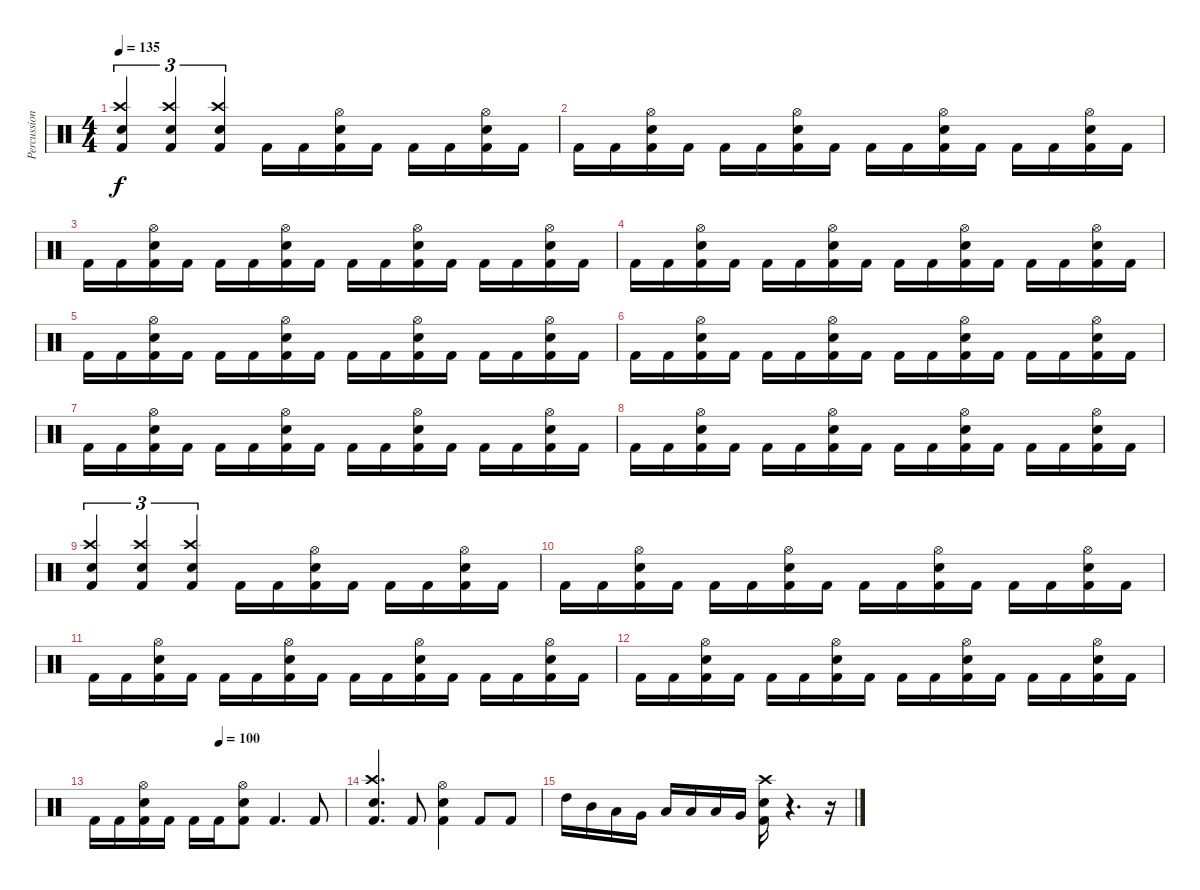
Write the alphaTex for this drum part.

\track ("Percussions" "Percussion") {instrument percussion}
\staff {score}
\articulation defaults
\ts (4 4)
\tempo 135
\clef neutral
\ks c
("Snare (hit) 2" "Crash high (hit)" "Kick (hit) 2").4{tu (3 2) dy f} ("Snare (hit) 2" "Crash high (hit)" "Kick (hit) 2").4{tu (3 2)} ("Snare (hit) 2" "Crash high (hit)" "Kick (hit) 2").4{tu (3 2)} "Kick (hit) 2".16 "Kick (hit) 2".16 ("Snare (hit) 2" "Hi-Hat (open)" "Kick (hit) 2").16 "Kick (hit) 2".16 "Kick (hit) 2".16 "Kick (hit) 2".16 ("Snare (hit) 2" "Hi-Hat (open)" "Kick (hit) 2").16 "Kick (hit) 2".16 |
"Kick (hit) 2".16 "Kick (hit) 2".16 ("Hi-Hat (open)" "Snare (hit) 2" "Kick (hit) 2").16 "Kick (hit) 2".16 "Kick (hit) 2".16 "Kick (hit) 2".16 ("Hi-Hat (open)" "Snare (hit) 2" "Kick (hit) 2").16 "Kick (hit) 2".16 "Kick (hit) 2".16 "Kick (hit) 2".16 ("Hi-Hat (open)" "Snare (hit) 2" "Kick (hit) 2").16 "Kick (hit) 2".16 "Kick (hit) 2".16 "Kick (hit) 2".16 ("Hi-Hat (open)" "Snare (hit) 2" "Kick (hit) 2").16 "Kick (hit) 2".16 |
"Kick (hit) 2".16 "Kick (hit) 2".16 ("Hi-Hat (open)" "Snare (hit) 2" "Kick (hit) 2").16 "Kick (hit) 2".16 "Kick (hit) 2".16 "Kick (hit) 2".16 ("Hi-Hat (open)" "Snare (hit) 2" "Kick (hit) 2").16 "Kick (hit) 2".16 "Kick (hit) 2".16 "Kick (hit) 2".16 ("Hi-Hat (open)" "Snare (hit) 2" "Kick (hit) 2").16 "Kick (hit) 2".16 "Kick (hit) 2".16 "Kick (hit) 2".16 ("Hi-Hat (open)" "Snare (hit) 2" "Kick (hit) 2").16 "Kick (hit) 2".16 |
"Kick (hit) 2".16 "Kick (hit) 2".16 ("Hi-Hat (open)" "Snare (hit) 2" "Kick (hit) 2").16 "Kick (hit) 2".16 "Kick (hit) 2".16 "Kick (hit) 2".16 ("Hi-Hat (open)" "Snare (hit) 2" "Kick (hit) 2").16 "Kick (hit) 2".16 "Kick (hit) 2".16 "Kick (hit) 2".16 ("Hi-Hat (open)" "Snare (hit) 2" "Kick (hit) 2").16 "Kick (hit) 2".16 "Kick (hit) 2".16 "Kick (hit) 2".16 ("Hi-Hat (open)" "Snare (hit) 2" "Kick (hit) 2").16 "Kick (hit) 2".16 |
"Kick (hit) 2".16 "Kick (hit) 2".16 ("Hi-Hat (open)" "Snare (hit) 2" "Kick (hit) 2").16 "Kick (hit) 2".16 "Kick (hit) 2".16 "Kick (hit) 2".16 ("Hi-Hat (open)" "Snare (hit) 2" "Kick (hit) 2").16 "Kick (hit) 2".16 "Kick (hit) 2".16 "Kick (hit) 2".16 ("Hi-Hat (open)" "Snare (hit) 2" "Kick (hit) 2").16 "Kick (hit) 2".16 "Kick (hit) 2".16 "Kick (hit) 2".16 ("Hi-Hat (open)" "Snare (hit) 2" "Kick (hit) 2").16 "Kick (hit) 2".16 |
"Kick (hit) 2".16 "Kick (hit) 2".16 ("Hi-Hat (open)" "Snare (hit) 2" "Kick (hit) 2").16 "Kick (hit) 2".16 "Kick (hit) 2".16 "Kick (hit) 2".16 ("Hi-Hat (open)" "Snare (hit) 2" "Kick (hit) 2").16 "Kick (hit) 2".16 "Kick (hit) 2".16 "Kick (hit) 2".16 ("Hi-Hat (open)" "Snare (hit) 2" "Kick (hit) 2").16 "Kick (hit) 2".16 "Kick (hit) 2".16 "Kick (hit) 2".16 ("Hi-Hat (open)" "Snare (hit) 2" "Kick (hit) 2").16 "Kick (hit) 2".16 |
"Kick (hit) 2".16 "Kick (hit) 2".16 ("Hi-Hat (open)" "Snare (hit) 2" "Kick (hit) 2").16 "Kick (hit) 2".16 "Kick (hit) 2".16 "Kick (hit) 2".16 ("Hi-Hat (open)" "Snare (hit) 2" "Kick (hit) 2").16 "Kick (hit) 2".16 "Kick (hit) 2".16 "Kick (hit) 2".16 ("Hi-Hat (open)" "Snare (hit) 2" "Kick (hit) 2").16 "Kick (hit) 2".16 "Kick (hit) 2".16 "Kick (hit) 2".16 ("Hi-Hat (open)" "Snare (hit) 2" "Kick (hit) 2").16 "Kick (hit) 2".16 |
"Kick (hit) 2".16 "Kick (hit) 2".16 ("Hi-Hat (open)" "Snare (hit) 2" "Kick (hit) 2").16 "Kick (hit) 2".16 "Kick (hit) 2".16 "Kick (hit) 2".16 ("Hi-Hat (open)" "Snare (hit) 2" "Kick (hit) 2").16 "Kick (hit) 2".16 "Kick (hit) 2".16 "Kick (hit) 2".16 ("Hi-Hat (open)" "Snare (hit) 2" "Kick (hit) 2").16 "Kick (hit) 2".16 "Kick (hit) 2".16 "Kick (hit) 2".16 ("Hi-Hat (open)" "Snare (hit) 2" "Kick (hit) 2").16 "Kick (hit) 2".16 |
("Snare (hit) 2" "Crash high (hit)" "Kick (hit) 2").4{tu (3 2)} ("Snare (hit) 2" "Crash high (hit)" "Kick (hit) 2").4{tu (3 2)} ("Snare (hit) 2" "Crash high (hit)" "Kick (hit) 2").4{tu (3 2)} "Kick (hit) 2".16 "Kick (hit) 2".16 ("Snare (hit) 2" "Hi-Hat (open)" "Kick (hit) 2").16 "Kick (hit) 2".16 "Kick (hit) 2".16 "Kick (hit) 2".16 ("Snare (hit) 2" "Hi-Hat (open)" "Kick (hit) 2").16 "Kick (hit) 2".16 |
"Kick (hit) 2".16 "Kick (hit) 2".16 ("Hi-Hat (open)" "Snare (hit) 2" "Kick (hit) 2").16 "Kick (hit) 2".16 "Kick (hit) 2".16 "Kick (hit) 2".16 ("Hi-Hat (open)" "Snare (hit) 2" "Kick (hit) 2").16 "Kick (hit) 2".16 "Kick (hit) 2".16 "Kick (hit) 2".16 ("Hi-Hat (open)" "Snare (hit) 2" "Kick (hit) 2").16 "Kick (hit) 2".16 "Kick (hit) 2".16 "Kick (hit) 2".16 ("Hi-Hat (open)" "Snare (hit) 2" "Kick (hit) 2").16 "Kick (hit) 2".16 |
"Kick (hit) 2".16 "Kick (hit) 2".16 ("Hi-Hat (open)" "Snare (hit) 2" "Kick (hit) 2").16 "Kick (hit) 2".16 "Kick (hit) 2".16 "Kick (hit) 2".16 ("Hi-Hat (open)" "Snare (hit) 2" "Kick (hit) 2").16 "Kick (hit) 2".16 "Kick (hit) 2".16 "Kick (hit) 2".16 ("Hi-Hat (open)" "Snare (hit) 2" "Kick (hit) 2").16 "Kick (hit) 2".16 "Kick (hit) 2".16 "Kick (hit) 2".16 ("Hi-Hat (open)" "Snare (hit) 2" "Kick (hit) 2").16 "Kick (hit) 2".16 |
"Kick (hit) 2".16 "Kick (hit) 2".16 ("Hi-Hat (open)" "Snare (hit) 2" "Kick (hit) 2").16 "Kick (hit) 2".16 "Kick (hit) 2".16 "Kick (hit) 2".16 ("Hi-Hat (open)" "Snare (hit) 2" "Kick (hit) 2").16 "Kick (hit) 2".16 "Kick (hit) 2".16 "Kick (hit) 2".16 ("Hi-Hat (open)" "Snare (hit) 2" "Kick (hit) 2").16 "Kick (hit) 2".16 "Kick (hit) 2".16 "Kick (hit) 2".16 ("Hi-Hat (open)" "Snare (hit) 2" "Kick (hit) 2").16 "Kick (hit) 2".16 |
\tempo (100 0.5)
"Kick (hit) 2".16 "Kick (hit) 2".16 ("Hi-Hat (open)" "Snare (hit) 2" "Kick (hit) 2").16 "Kick (hit) 2".16 "Kick (hit) 2".16 "Kick (hit) 2".16 ("Hi-Hat (open)" "Snare (hit) 2" "Kick (hit) 2").8 "Kick (hit) 2".4{d} "Kick (hit) 2".8 |
("Crash high (hit)" "Snare (hit) 2" "Kick (hit) 2").4{d} "Kick (hit) 2".8 ("Hi-Hat (open)" "Snare (hit) 2" "Kick (hit) 2").4 "Kick (hit) 2".8 "Kick (hit) 2".8 |
"High Tom (hit)".16 "Mid Tom (hit)".16 "Low Tom (hit)".16 "Very Low Tom (hit)".16 "Low Floor Tom (hit)".16 "Low Tom (hit)".16 "Low Tom (hit)".16 "Very Low Tom (hit)".16 ("Crash high (hit)" "Electric Snare (hit)" "Kick (hit) 2").16 r.4{d} r.16
